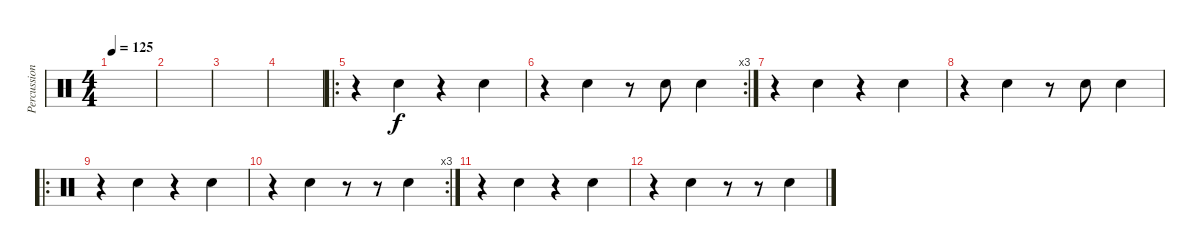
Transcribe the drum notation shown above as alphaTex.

\track ("Percussion" "Percussion") {instrument percussion}
\staff {score}
\articulation defaults
\ts (4 4)
\tempo 125
\clef neutral
\ks c
|
|
|
|
\ro
r.4 "Hand Clap (hit)".4 r.4 "Hand Clap (hit)".4 |
\rc 3
r.4 "Hand Clap (hit)".4 r.8 "Hand Clap (hit)".8 "Hand Clap (hit)".4 |
r.4 "Hand Clap (hit)".4 r.4 "Hand Clap (hit)".4 |
r.4 "Hand Clap (hit)".4 r.8 "Hand Clap (hit)".8 "Hand Clap (hit)".4 |
\ro
r.4 "Hand Clap (hit)".4 r.4 "Hand Clap (hit)".4 |
\rc 3
r.4 "Hand Clap (hit)".4 r.8 r.8 "Hand Clap (hit)".4 |
r.4 "Hand Clap (hit)".4 r.4 "Hand Clap (hit)".4 |
r.4 "Hand Clap (hit)".4 r.8 r.8 "Hand Clap (hit)".4
